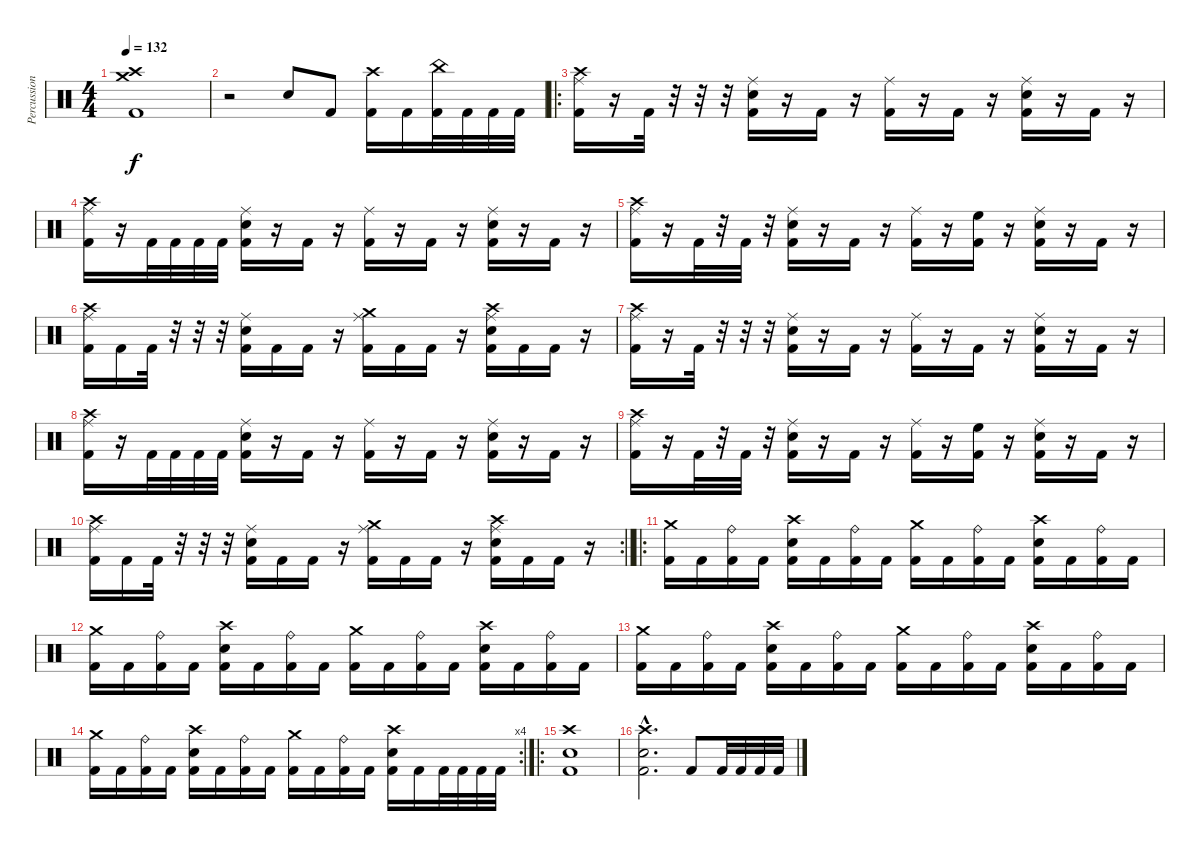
\track ("Percussion" "Percussion") {instrument percussion}
\staff {score}
\articulation defaults
\ts (4 4)
\tempo 132
\clef neutral
\ks c
("Crash high (hit)" "Crash medium (hit)" "Kick (hit) 2").1{dy f} |
r.2 "Snare (hit) 2".8 "Kick (hit) 2".8 ("Crash high (hit)" "Kick (hit) 2").16 "Kick (hit) 2".16 ("China (hit)" "Kick (hit) 2").32 "Kick (hit) 2".32 "Kick (hit) 2".32 "Kick (hit) 2".32 |
\ro
("Crash high (hit)" "Ride (middle)" "Kick (hit) 2").16 r.16 "Kick (hit) 2".32 r.32 r.32 r.32 ("Ride (middle)" "Snare (hit) 2" "Kick (hit) 2").16 r.16 "Kick (hit) 2".16 r.16 ("Ride (middle)" "Kick (hit) 2").16 r.16 "Kick (hit) 2".16 r.16 ("Ride (middle)" "Snare (hit) 2" "Kick (hit) 2").16 r.16 "Kick (hit) 2".16 r.16 |
("Crash high (hit)" "Ride (middle)" "Kick (hit) 2").16 r.16 "Kick (hit) 2".32 "Kick (hit) 2".32 "Kick (hit) 2".32 "Kick (hit) 2".32 ("Ride (middle)" "Snare (hit) 2" "Kick (hit) 2").16 r.16 "Kick (hit) 2".16 r.16 ("Ride (middle)" "Kick (hit) 2").16 r.16 "Kick (hit) 2".16 r.16 ("Ride (middle)" "Snare (hit) 2" "Kick (hit) 2").16 r.16 "Kick (hit) 2".16 r.16 |
("Crash high (hit)" "Ride (middle)" "Kick (hit) 2").16 r.16 "Kick (hit) 2".32 r.32 "Kick (hit) 2".32 r.32 ("Ride (middle)" "Snare (hit) 2" "Kick (hit) 2").16 r.16 "Kick (hit) 2".16 r.16 ("Ride (middle)" "Kick (hit) 2").16 r.16 ("High Floor Tom (hit)" "Kick (hit) 2").16 r.16 ("Ride (middle)" "Snare (hit) 2" "Kick (hit) 2").16 r.16 "Kick (hit) 2".16 r.16 |
("Crash high (hit)" "Ride (middle)" "Kick (hit) 2").16 "Kick (hit) 2".16 "Kick (hit) 2".32 r.32 r.32 r.32 ("Ride (middle)" "Snare (hit) 2" "Kick (hit) 2").16 "Kick (hit) 2".16 "Kick (hit) 2".16 r.16 ("Crash medium (hit)" "Ride (middle)" "Kick (hit) 2").16 "Kick (hit) 2".16 "Kick (hit) 2".16 r.16 ("Crash high (hit)" "Ride (middle)" "Snare (hit) 2" "Kick (hit) 2").16 "Kick (hit) 2".16 "Kick (hit) 2".16 r.16 |
("Crash high (hit)" "Ride (middle)" "Kick (hit) 2").16 r.16 "Kick (hit) 2".32 r.32 r.32 r.32 ("Ride (middle)" "Snare (hit) 2" "Kick (hit) 2").16 r.16 "Kick (hit) 2".16 r.16 ("Ride (middle)" "Kick (hit) 2").16 r.16 "Kick (hit) 2".16 r.16 ("Ride (middle)" "Snare (hit) 2" "Kick (hit) 2").16 r.16 "Kick (hit) 2".16 r.16 |
("Crash high (hit)" "Ride (middle)" "Kick (hit) 2").16 r.16 "Kick (hit) 2".32 "Kick (hit) 2".32 "Kick (hit) 2".32 "Kick (hit) 2".32 ("Ride (middle)" "Snare (hit) 2" "Kick (hit) 2").16 r.16 "Kick (hit) 2".16 r.16 ("Ride (middle)" "Kick (hit) 2").16 r.16 "Kick (hit) 2".16 r.16 ("Ride (middle)" "Snare (hit) 2" "Kick (hit) 2").16 r.16 "Kick (hit) 2".16 r.16 |
("Crash high (hit)" "Ride (middle)" "Kick (hit) 2").16 r.16 "Kick (hit) 2".32 r.32 "Kick (hit) 2".32 r.32 ("Ride (middle)" "Snare (hit) 2" "Kick (hit) 2").16 r.16 "Kick (hit) 2".16 r.16 ("Ride (middle)" "Kick (hit) 2").16 r.16 ("High Floor Tom (hit)" "Kick (hit) 2").16 r.16 ("Ride (middle)" "Snare (hit) 2" "Kick (hit) 2").16 r.16 "Kick (hit) 2".16 r.16 |
\rc 2
\barLineRight lightlight
("Crash high (hit)" "Ride (middle)" "Kick (hit) 2").16 "Kick (hit) 2".16 "Kick (hit) 2".32 r.32 r.32 r.32 ("Ride (middle)" "Snare (hit) 2" "Kick (hit) 2").16 "Kick (hit) 2".16 "Kick (hit) 2".16 r.16 ("Crash medium (hit)" "Ride (middle)" "Kick (hit) 2").16 "Kick (hit) 2".16 "Kick (hit) 2".16 r.16 ("Crash high (hit)" "Ride (middle)" "Snare (hit) 2" "Kick (hit) 2").16 "Kick (hit) 2".16 "Kick (hit) 2".16 r.16 |
\ro
("Crash medium (hit)" "Kick (hit) 2").16 "Kick (hit) 2".16 ("Ride (bell)" "Kick (hit) 2").16 "Kick (hit) 2".16 ("Crash high (hit)" "Snare (hit) 2" "Kick (hit) 2").16 "Kick (hit) 2".16 ("Ride (bell)" "Kick (hit) 2").16 "Kick (hit) 2".16 ("Crash medium (hit)" "Kick (hit) 2").16 "Kick (hit) 2".16 ("Ride (bell)" "Kick (hit) 2").16 "Kick (hit) 2".16 ("Crash high (hit)" "Snare (hit) 2" "Kick (hit) 2").16 "Kick (hit) 2".16 ("Ride (bell)" "Kick (hit) 2").16 "Kick (hit) 2".16 |
("Crash medium (hit)" "Kick (hit) 2").16 "Kick (hit) 2".16 ("Ride (bell)" "Kick (hit) 2").16 "Kick (hit) 2".16 ("Crash high (hit)" "Snare (hit) 2" "Kick (hit) 2").16 "Kick (hit) 2".16 ("Ride (bell)" "Kick (hit) 2").16 "Kick (hit) 2".16 ("Crash medium (hit)" "Kick (hit) 2").16 "Kick (hit) 2".16 ("Ride (bell)" "Kick (hit) 2").16 "Kick (hit) 2".16 ("Crash high (hit)" "Snare (hit) 2" "Kick (hit) 2").16 "Kick (hit) 2".16 ("Ride (bell)" "Kick (hit) 2").16 "Kick (hit) 2".16 |
("Crash medium (hit)" "Kick (hit) 2").16 "Kick (hit) 2".16 ("Ride (bell)" "Kick (hit) 2").16 "Kick (hit) 2".16 ("Crash high (hit)" "Snare (hit) 2" "Kick (hit) 2").16 "Kick (hit) 2".16 ("Ride (bell)" "Kick (hit) 2").16 "Kick (hit) 2".16 ("Crash medium (hit)" "Kick (hit) 2").16 "Kick (hit) 2".16 ("Ride (bell)" "Kick (hit) 2").16 "Kick (hit) 2".16 ("Crash high (hit)" "Snare (hit) 2" "Kick (hit) 2").16 "Kick (hit) 2".16 ("Ride (bell)" "Kick (hit) 2").16 "Kick (hit) 2".16 |
\rc 4
("Crash medium (hit)" "Kick (hit) 2").16 "Kick (hit) 2".16 ("Ride (bell)" "Kick (hit) 2").16 "Kick (hit) 2".16 ("Crash high (hit)" "Snare (hit) 2" "Kick (hit) 2").16 "Kick (hit) 2".16 ("Ride (bell)" "Kick (hit) 2").16 "Kick (hit) 2".16 ("Crash medium (hit)" "Kick (hit) 2").16 "Kick (hit) 2".16 ("Ride (bell)" "Kick (hit) 2").16 "Kick (hit) 2".16 ("Crash high (hit)" "Snare (hit) 2" "Kick (hit) 2").16 "Kick (hit) 2".16 "Kick (hit) 2".32 "Kick (hit) 2".32 "Kick (hit) 2".32 "Kick (hit) 2".32 |
\ro
("Crash high (hit)" "Snare (hit) 2" "Kick (hit) 2").1 |
("Crash high (hit)"{hac} "Snare (hit) 2"{hac} "Kick (hit) 2"{hac}).2{d} "Kick (hit) 2".8 "Kick (hit) 2".32 "Kick (hit) 2".32 "Kick (hit) 2".32 "Kick (hit) 2".32
